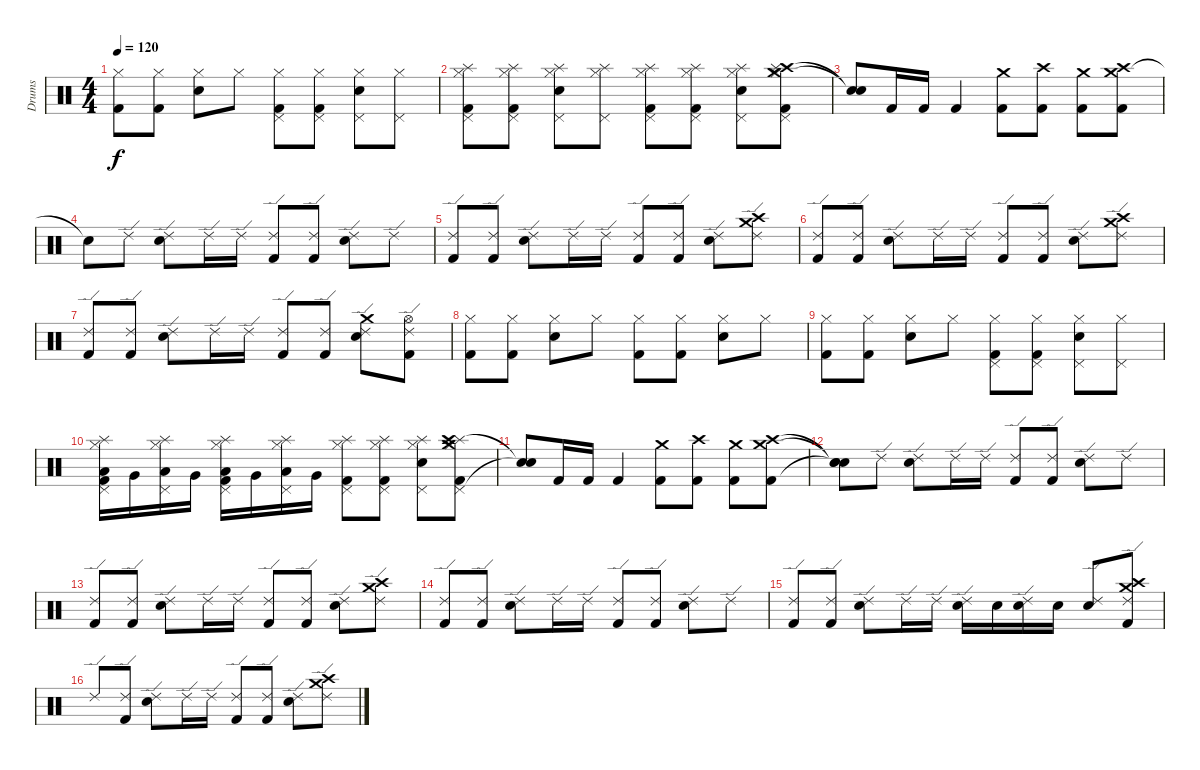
\track ("Drums" "Drums") {instrument percussion}
\staff {score}
\articulation defaults
\ts (4 4)
\tempo 120
\clef neutral
\ks c
("Hi-Hat (closed)" "Kick (hit) 2").8{dy f} ("Hi-Hat (closed)" "Kick (hit) 2").8 ("Hi-Hat (closed)" "Snare (hit) 2").8 "Hi-Hat (closed)".8 ("Pedal Hi-Hat (hit)" "Hi-Hat (closed)" "Kick (hit) 2").8 ("Pedal Hi-Hat (hit)" "Hi-Hat (closed)" "Kick (hit) 2").8 ("Pedal Hi-Hat (hit)" "Hi-Hat (closed)" "Snare (hit) 2").8 ("Pedal Hi-Hat (hit)" "Hi-Hat (closed)").8 |
("Splash (hit)" "Pedal Hi-Hat (hit)" "Hi-Hat (closed)" "Kick (hit) 2").8 ("Pedal Hi-Hat (hit)" "Hi-Hat (closed)" "Kick (hit) 2" "Splash (hit)").8 ("Splash (hit)" "Pedal Hi-Hat (hit)" "Hi-Hat (closed)" "Snare (hit) 2").8 ("Splash (hit)" "Pedal Hi-Hat (hit)" "Hi-Hat (closed)").8 ("Splash (hit)" "Pedal Hi-Hat (hit)" "Hi-Hat (closed)" "Kick (hit) 2").8 ("Splash (hit)" "Pedal Hi-Hat (hit)" "Hi-Hat (closed)" "Kick (hit) 2").8 ("Splash (hit)" "Pedal Hi-Hat (hit)" "Hi-Hat (closed)" "Snare (hit) 2").8 ("Crash high (hit)" "Crash medium (hit)" "Splash (hit)" "Pedal Hi-Hat (hit)" "Hi-Hat (closed)" "Kick (hit) 2").8 |
("Snare (hit)"{t} "Snare (hit)"{t}).8 "Kick (hit) 2".16 "Kick (hit) 2".16 "Kick (hit) 2".4 ("Kick (hit) 2" "Crash medium (hit)").8 ("Crash high (hit)" "Kick (hit) 2").8 ("Crash medium (hit)" "Kick (hit) 2").8 ("Crash medium (hit)" "Crash high (hit)" "Kick (hit) 2").8 |
"Snare (hit)"{t}.8 "Ride (edge) 2".8 ("Ride (edge) 2" "Snare (hit) 2").8 "Ride (edge) 2".16 "Ride (edge) 2".16 ("Ride (edge) 2" "Kick (hit) 2").8 ("Ride (edge) 2" "Kick (hit) 2").8 ("Ride (edge) 2" "Snare (hit) 2").8 "Ride (edge) 2".8 |
("Ride (edge) 2" "Kick (hit) 2").8 ("Ride (edge) 2" "Kick (hit) 2").8 ("Ride (edge) 2" "Snare (hit) 2").8 "Ride (edge) 2".16 "Ride (edge) 2".16 ("Ride (edge) 2" "Kick (hit) 2").8 ("Ride (edge) 2" "Kick (hit) 2").8 ("Ride (edge) 2" "Snare (hit) 2").8 ("Ride (edge) 2" "Crash high (hit)" "Crash medium (hit)").8 |
("Ride (edge) 2" "Kick (hit) 2").8 ("Ride (edge) 2" "Kick (hit) 2").8 ("Ride (edge) 2" "Snare (hit) 2").8 "Ride (edge) 2".16 "Ride (edge) 2".16 ("Ride (edge) 2" "Kick (hit) 2").8 ("Ride (edge) 2" "Kick (hit) 2").8 ("Ride (edge) 2" "Snare (hit) 2").8 ("Ride (edge) 2" "Crash high (hit)" "Crash medium (hit)").8 |
("Ride (edge) 2" "Kick (hit) 2").8 ("Ride (edge) 2" "Kick (hit) 2").8 ("Ride (edge) 2" "Snare (hit) 2").8 "Ride (edge) 2".16 "Ride (edge) 2".16 ("Ride (edge) 2" "Kick (hit) 2").8 ("Ride (edge) 2" "Kick (hit) 2").8 ("Ride (edge) 2" "Snare (hit) 2" "Crash medium (hit)").8 ("Ride (edge) 2" "Hi-Hat (open)" "Kick (hit) 2").8 |
("Hi-Hat (closed)" "Kick (hit) 2").8 ("Hi-Hat (closed)" "Kick (hit) 2").8 ("Hi-Hat (closed)" "Snare (hit) 2").8 "Hi-Hat (closed)".8 ("Hi-Hat (closed)" "Kick (hit) 2").8 ("Hi-Hat (closed)" "Kick (hit) 2").8 ("Hi-Hat (closed)" "Snare (hit) 2").8 "Hi-Hat (closed)".8 |
("Hi-Hat (closed)" "Kick (hit) 2").8 ("Hi-Hat (closed)" "Kick (hit) 2").8 ("Hi-Hat (closed)" "Snare (hit) 2").8 "Hi-Hat (closed)".8 ("Pedal Hi-Hat (hit)" "Hi-Hat (closed)" "Kick (hit) 2").8 ("Hi-Hat (closed)" "Kick (hit) 2" "Pedal Hi-Hat (hit)").8 ("Pedal Hi-Hat (hit)" "Hi-Hat (closed)" "Snare (hit) 2").8 ("Pedal Hi-Hat (hit)" "Hi-Hat (closed)").8 |
("Splash (hit)" "Pedal Hi-Hat (hit)" "Hi-Hat (closed)" "Kick (hit) 2" "Low Tom (hit)").16 "Very Low Tom (hit)".16 ("Splash (hit)" "Pedal Hi-Hat (hit)" "Hi-Hat (closed)" "Low Floor Tom (hit)").16 "Very Low Tom (hit)".16 ("Splash (hit)" "Pedal Hi-Hat (hit)" "Hi-Hat (closed)" "Kick (hit) 2" "Low Tom (hit)").16 "Very Low Tom (hit)".16 ("Splash (hit)" "Pedal Hi-Hat (hit)" "Hi-Hat (closed)" "Low Floor Tom (hit)").16 "Very Low Tom (hit)".16 ("Splash (hit)" "Pedal Hi-Hat (hit)" "Hi-Hat (closed)" "Kick (hit) 2").8 ("Splash (hit)" "Pedal Hi-Hat (hit)" "Hi-Hat (closed)" "Kick (hit) 2").8 ("Splash (hit)" "Pedal Hi-Hat (hit)" "Hi-Hat (closed)" "Snare (hit) 2").8 ("Splash (hit)" "Pedal Hi-Hat (hit)" "Hi-Hat (closed)" "Crash high (hit)" "Kick (hit) 2" "Crash medium (hit)").8 |
("Snare (hit)"{t} "Snare (hit)"{t}).8 "Kick (hit) 2".16 "Kick (hit) 2".16 "Kick (hit) 2".4 ("Crash medium (hit)" "Kick (hit) 2").8 ("Crash high (hit)" "Kick (hit) 2").8 ("Crash medium (hit)" "Kick (hit) 2").8 ("Crash high (hit)" "Crash medium (hit)" "Kick (hit) 2").8 |
("Snare (hit)"{t} "Snare (hit)"{t} "Snare (hit)"{t}).8 "Ride (edge) 2".8 ("Snare (hit) 2" "Ride (edge) 2").8 "Ride (edge) 2".16 "Ride (edge) 2".16 ("Kick (hit) 2" "Ride (edge) 2").8 ("Kick (hit) 2" "Ride (edge) 2").8 ("Snare (hit) 2" "Ride (edge) 2").8 "Ride (edge) 2".8 |
("Kick (hit) 2" "Ride (edge) 2").8 ("Kick (hit) 2" "Ride (edge) 2").8 ("Snare (hit) 2" "Ride (edge) 2").8 "Ride (edge) 2".16 "Ride (edge) 2".16 ("Kick (hit) 2" "Ride (edge) 2").8 ("Kick (hit) 2" "Ride (edge) 2").8 ("Snare (hit) 2" "Ride (edge) 2").8 ("Ride (edge) 2" "Crash medium (hit)" "Crash high (hit)").8 |
("Kick (hit) 2" "Ride (edge) 2").8 ("Kick (hit) 2" "Ride (edge) 2").8 ("Snare (hit) 2" "Ride (edge) 2").8 "Ride (edge) 2".16 "Ride (edge) 2".16 ("Kick (hit) 2" "Ride (edge) 2").8 ("Kick (hit) 2" "Ride (edge) 2").8 ("Snare (hit) 2" "Ride (edge) 2").8 "Ride (edge) 2".8 |
("Kick (hit) 2" "Ride (edge) 2").8 ("Kick (hit) 2" "Ride (edge) 2").8 ("Snare (hit) 2" "Ride (edge) 2").8 "Ride (edge) 2".16 "Ride (edge) 2".16 ("Snare (hit) 2" "Ride (edge) 2").16 "Snare (hit) 2".16 ("Snare (hit) 2" "Ride (edge) 2").16 "Snare (hit) 2".16 ("Ride (edge) 2" "Snare (hit) 2").8 ("Kick (hit) 2" "Ride (edge) 2" "Crash high (hit)" "Crash medium (hit)").8 |
"Ride (edge) 2".8 ("Kick (hit) 2" "Ride (edge) 2").8 ("Snare (hit) 2" "Ride (edge) 2").8 "Ride (edge) 2".16 "Ride (edge) 2".16 ("Kick (hit) 2" "Ride (edge) 2").8 ("Kick (hit) 2" "Ride (edge) 2").8 ("Snare (hit) 2" "Ride (edge) 2").8 ("Ride (edge) 2" "Crash high (hit)" "Crash medium (hit)").8
